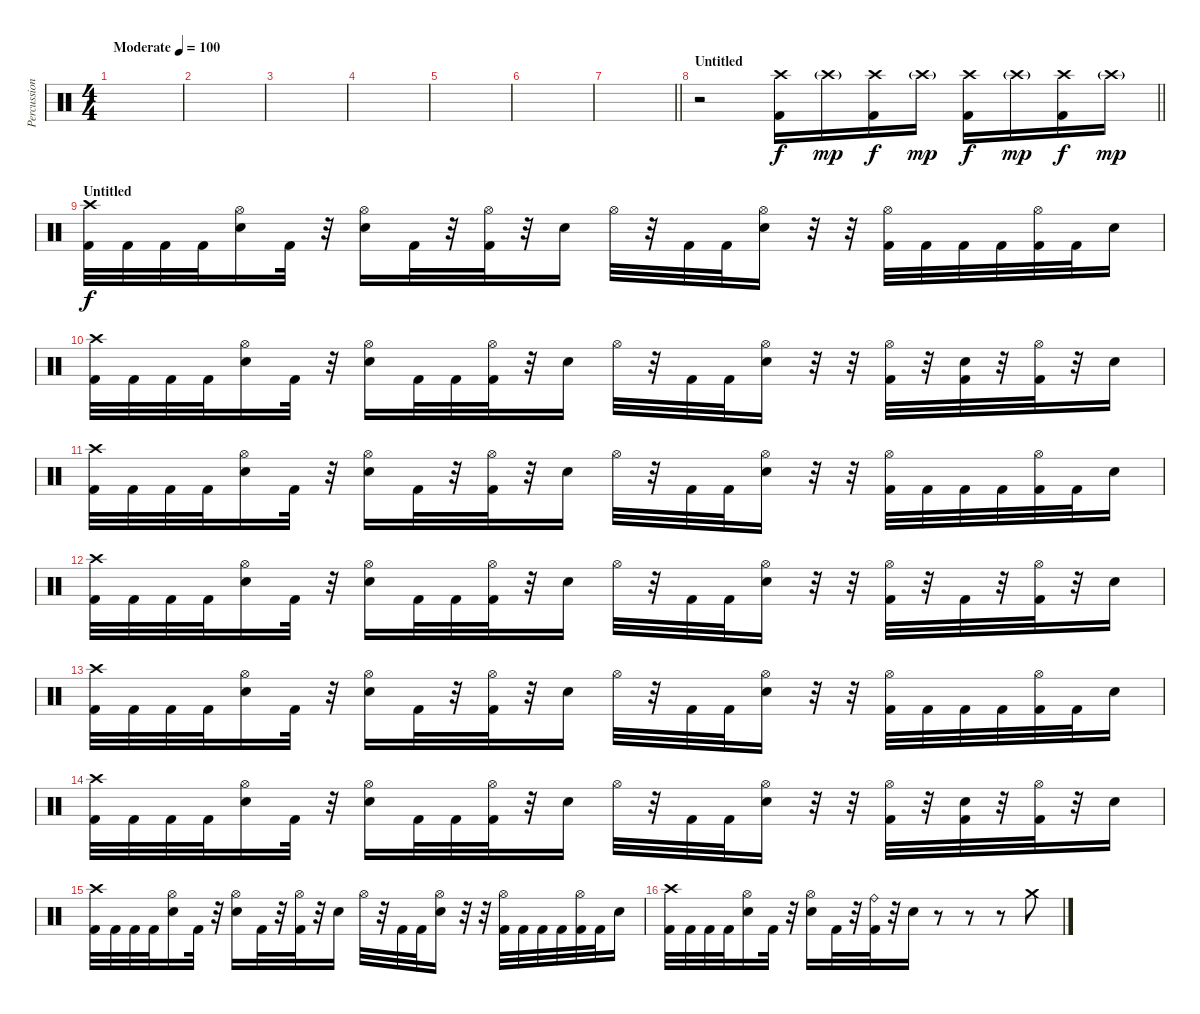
\track ("Percussion" "Percussion") {instrument percussion}
\staff {score}
\articulation defaults
\ts (4 4)
\tempo (100 "Moderate")
\clef neutral
\ks c
|
|
|
|
|
|
\barLineRight lightlight
|
\section ("" "Untitled")
\barLineRight lightlight
r.2 ("Crash high (hit)" "Kick (hit) 2").16 "Crash high (hit)"{g}.16{dy mp} ("Crash high (hit)" "Kick (hit) 2").16{dy f} "Crash high (hit)"{g}.16{dy mp} ("Crash high (hit)" "Kick (hit) 2").16{dy f} "Crash high (hit)"{g}.16{dy mp} ("Crash high (hit)" "Kick (hit) 2").16{dy f} "Crash high (hit)"{g}.16{dy mp} |
\section ("" "Untitled")
("Crash high (hit)" "Kick (hit) 2").32{dy f} "Kick (hit) 2".32 "Kick (hit) 2".32 "Kick (hit) 2".32 ("Hi-Hat (open)" "Snare (hit) 2").16 "Kick (hit) 2".32 r.32 ("Hi-Hat (open)" "Snare (hit) 2").16 "Kick (hit) 2".32 r.32 ("Hi-Hat (open)" "Kick (hit) 2").32 r.32 "Snare (hit) 2".16 "Hi-Hat (open)".32 r.32 "Kick (hit) 2".32 "Kick (hit) 2".32 ("Hi-Hat (open)" "Snare (hit) 2").16 r.32 r.32 ("Hi-Hat (open)" "Kick (hit) 2").32 "Kick (hit) 2".32 "Kick (hit) 2".32 "Kick (hit) 2".32 ("Hi-Hat (open)" "Kick (hit) 2").32 "Kick (hit) 2".32 "Snare (hit) 2".16 |
("Crash high (hit)" "Kick (hit) 2").32 "Kick (hit) 2".32 "Kick (hit) 2".32 "Kick (hit) 2".32 ("Hi-Hat (open)" "Snare (hit) 2").16 "Kick (hit) 2".32 r.32 ("Hi-Hat (open)" "Snare (hit) 2").16 "Kick (hit) 2".32 "Kick (hit) 2".32 ("Hi-Hat (open)" "Kick (hit) 2").32 r.32 "Snare (hit) 2".16 "Hi-Hat (open)".32 r.32 "Kick (hit) 2".32 "Kick (hit) 2".32 ("Hi-Hat (open)" "Snare (hit) 2").16 r.32 r.32 ("Hi-Hat (open)" "Kick (hit) 2").32 r.32 ("Snare (hit) 2" "Kick (hit) 2").32 r.32 ("Hi-Hat (open)" "Kick (hit) 2").32 r.32 "Snare (hit) 2".16 |
("Crash high (hit)" "Kick (hit) 2").32 "Kick (hit) 2".32 "Kick (hit) 2".32 "Kick (hit) 2".32 ("Hi-Hat (open)" "Snare (hit) 2").16 "Kick (hit) 2".32 r.32 ("Hi-Hat (open)" "Snare (hit) 2").16 "Kick (hit) 2".32 r.32 ("Hi-Hat (open)" "Kick (hit) 2").32 r.32 "Snare (hit) 2".16 "Hi-Hat (open)".32 r.32 "Kick (hit) 2".32 "Kick (hit) 2".32 ("Hi-Hat (open)" "Snare (hit) 2").16 r.32 r.32 ("Hi-Hat (open)" "Kick (hit) 2").32 "Kick (hit) 2".32 "Kick (hit) 2".32 "Kick (hit) 2".32 ("Hi-Hat (open)" "Kick (hit) 2").32 "Kick (hit) 2".32 "Snare (hit) 2".16 |
("Crash high (hit)" "Kick (hit) 2").32 "Kick (hit) 2".32 "Kick (hit) 2".32 "Kick (hit) 2".32 ("Hi-Hat (open)" "Snare (hit) 2").16 "Kick (hit) 2".32 r.32 ("Hi-Hat (open)" "Snare (hit) 2").16 "Kick (hit) 2".32 "Kick (hit) 2".32 ("Hi-Hat (open)" "Kick (hit) 2").32 r.32 "Snare (hit) 2".16 "Hi-Hat (open)".32 r.32 "Kick (hit) 2".32 "Kick (hit) 2".32 ("Hi-Hat (open)" "Snare (hit) 2").16 r.32 r.32 ("Hi-Hat (open)" "Kick (hit) 2").32 r.32 "Kick (hit) 2".32 r.32 ("Hi-Hat (open)" "Kick (hit) 2").32 r.32 "Snare (hit) 2".16 |
("Crash high (hit)" "Kick (hit) 2").32 "Kick (hit) 2".32 "Kick (hit) 2".32 "Kick (hit) 2".32 ("Hi-Hat (open)" "Snare (hit) 2").16 "Kick (hit) 2".32 r.32 ("Hi-Hat (open)" "Snare (hit) 2").16 "Kick (hit) 2".32 r.32 ("Hi-Hat (open)" "Kick (hit) 2").32 r.32 "Snare (hit) 2".16 "Hi-Hat (open)".32 r.32 "Kick (hit) 2".32 "Kick (hit) 2".32 ("Hi-Hat (open)" "Snare (hit) 2").16 r.32 r.32 ("Hi-Hat (open)" "Kick (hit) 2").32 "Kick (hit) 2".32 "Kick (hit) 2".32 "Kick (hit) 2".32 ("Hi-Hat (open)" "Kick (hit) 2").32 "Kick (hit) 2".32 "Snare (hit) 2".16 |
("Crash high (hit)" "Kick (hit) 2").32 "Kick (hit) 2".32 "Kick (hit) 2".32 "Kick (hit) 2".32 ("Hi-Hat (open)" "Snare (hit) 2").16 "Kick (hit) 2".32 r.32 ("Hi-Hat (open)" "Snare (hit) 2").16 "Kick (hit) 2".32 "Kick (hit) 2".32 ("Hi-Hat (open)" "Kick (hit) 2").32 r.32 "Snare (hit) 2".16 "Hi-Hat (open)".32 r.32 "Kick (hit) 2".32 "Kick (hit) 2".32 ("Hi-Hat (open)" "Snare (hit) 2").16 r.32 r.32 ("Hi-Hat (open)" "Kick (hit) 2").32 r.32 ("Snare (hit) 2" "Kick (hit) 2").32 r.32 ("Hi-Hat (open)" "Kick (hit) 2").32 r.32 "Snare (hit) 2".16 |
("Crash high (hit)" "Kick (hit) 2").32 "Kick (hit) 2".32 "Kick (hit) 2".32 "Kick (hit) 2".32 ("Hi-Hat (open)" "Snare (hit) 2").16 "Kick (hit) 2".32 r.32 ("Hi-Hat (open)" "Snare (hit) 2").16 "Kick (hit) 2".32 r.32 ("Hi-Hat (open)" "Kick (hit) 2").32 r.32 "Snare (hit) 2".16 "Hi-Hat (open)".32 r.32 "Kick (hit) 2".32 "Kick (hit) 2".32 ("Hi-Hat (open)" "Snare (hit) 2").16 r.32 r.32 ("Hi-Hat (open)" "Kick (hit) 2").32 "Kick (hit) 2".32 "Kick (hit) 2".32 "Kick (hit) 2".32 ("Hi-Hat (open)" "Kick (hit) 2").32 "Kick (hit) 2".32 "Snare (hit) 2".16 |
("Crash high (hit)" "Kick (hit) 2").32 "Kick (hit) 2".32 "Kick (hit) 2".32 "Kick (hit) 2".32 ("Hi-Hat (open)" "Snare (hit) 2").16 "Kick (hit) 2".32 r.32 ("Hi-Hat (open)" "Snare (hit) 2").16 "Kick (hit) 2".32 r.32 ("Ride (bell)" "Kick (hit) 2").32 r.32 "Snare (hit) 2".16 r.8 r.8 r.8 "Crash medium (hit)".8
